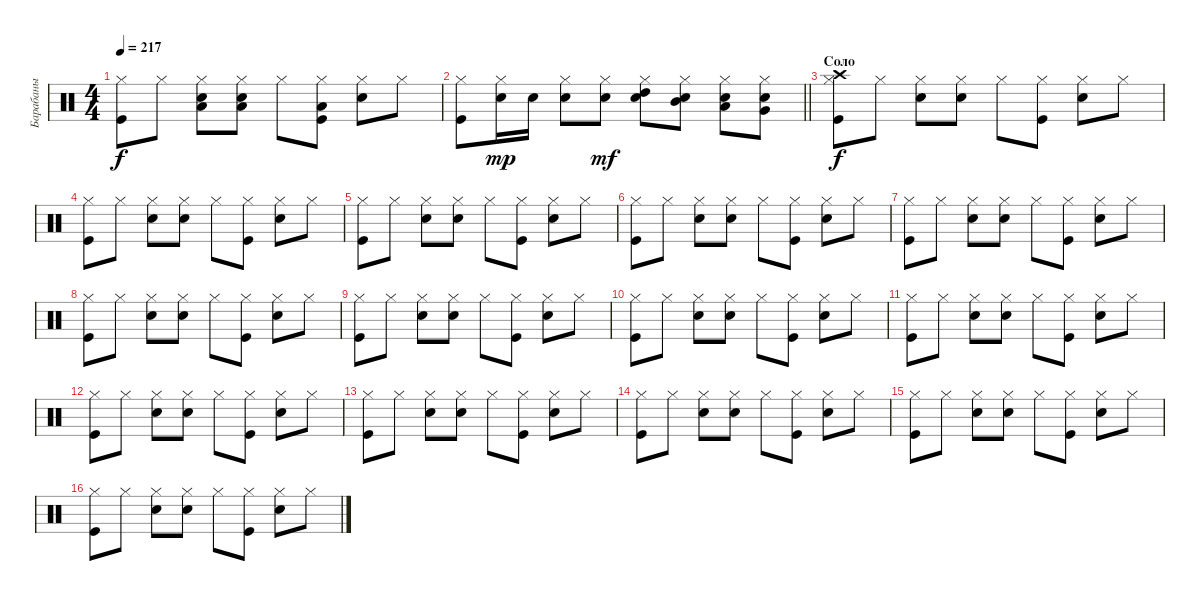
\track ("Барабаны" "Барабаны") {instrument percussion}
\staff {score}
\articulation defaults
\ts (4 4)
\tempo 217
\clef neutral
\ks c
("Kick (hit)" "Hi-Hat (closed)").8{dy f} "Hi-Hat (closed)".8 ("Snare (hit) 2" "Hi-Hat (closed)" "Low Floor Tom (hit)").8 ("Snare (hit) 2" "Hi-Hat (closed)" "Low Floor Tom (hit)").8 "Hi-Hat (closed)".8 ("Kick (hit)" "Hi-Hat (closed)" "Low Floor Tom (hit)").8 ("Snare (hit) 2" "Hi-Hat (closed)").8 "Hi-Hat (closed)".8 |
\barLineRight lightlight
("Kick (hit)" "Hi-Hat (closed)").8 ("Snare (hit) 2" "Hi-Hat (closed)").16{dy mp} "Snare (hit) 2".16 ("Snare (hit) 2" "Hi-Hat (closed)").8 ("Snare (hit) 2" "Hi-Hat (closed)").8{dy mf} ("Snare (hit) 2" "Hi-Hat (closed)" "High Tom (hit)").8 ("Snare (hit) 2" "Hi-Hat (closed)" "Mid Tom (hit)").8 ("Snare (hit) 2" "Hi-Hat (closed)" "Low Tom (hit)").8 ("Snare (hit) 2" "Hi-Hat (closed)" "Very Low Tom (hit)").8 |
\section ("" "Соло")
("Kick (hit)" "Hi-Hat (closed)" "Crash high (hit)").8{dy f} "Hi-Hat (closed)".8 ("Snare (hit) 2" "Hi-Hat (closed)").8 ("Snare (hit) 2" "Hi-Hat (closed)").8 "Hi-Hat (closed)".8 ("Kick (hit)" "Hi-Hat (closed)").8 ("Snare (hit) 2" "Hi-Hat (closed)").8 "Hi-Hat (closed)".8 |
("Kick (hit)" "Hi-Hat (closed)").8 "Hi-Hat (closed)".8 ("Snare (hit) 2" "Hi-Hat (closed)").8 ("Snare (hit) 2" "Hi-Hat (closed)").8 "Hi-Hat (closed)".8 ("Kick (hit)" "Hi-Hat (closed)").8 ("Snare (hit) 2" "Hi-Hat (closed)").8 "Hi-Hat (closed)".8 |
("Kick (hit)" "Hi-Hat (closed)").8 "Hi-Hat (closed)".8 ("Snare (hit) 2" "Hi-Hat (closed)").8 ("Snare (hit) 2" "Hi-Hat (closed)").8 "Hi-Hat (closed)".8 ("Kick (hit)" "Hi-Hat (closed)").8 ("Snare (hit) 2" "Hi-Hat (closed)").8 "Hi-Hat (closed)".8 |
("Kick (hit)" "Hi-Hat (closed)").8 "Hi-Hat (closed)".8 ("Snare (hit) 2" "Hi-Hat (closed)").8 ("Snare (hit) 2" "Hi-Hat (closed)").8 "Hi-Hat (closed)".8 ("Kick (hit)" "Hi-Hat (closed)").8 ("Snare (hit) 2" "Hi-Hat (closed)").8 "Hi-Hat (closed)".8 |
("Kick (hit)" "Hi-Hat (closed)").8 "Hi-Hat (closed)".8 ("Snare (hit) 2" "Hi-Hat (closed)").8 ("Snare (hit) 2" "Hi-Hat (closed)").8 "Hi-Hat (closed)".8 ("Kick (hit)" "Hi-Hat (closed)").8 ("Snare (hit) 2" "Hi-Hat (closed)").8 "Hi-Hat (closed)".8 |
("Kick (hit)" "Hi-Hat (closed)").8 "Hi-Hat (closed)".8 ("Snare (hit) 2" "Hi-Hat (closed)").8 ("Snare (hit) 2" "Hi-Hat (closed)").8 "Hi-Hat (closed)".8 ("Kick (hit)" "Hi-Hat (closed)").8 ("Snare (hit) 2" "Hi-Hat (closed)").8 "Hi-Hat (closed)".8 |
("Kick (hit)" "Hi-Hat (closed)").8 "Hi-Hat (closed)".8 ("Snare (hit) 2" "Hi-Hat (closed)").8 ("Snare (hit) 2" "Hi-Hat (closed)").8 "Hi-Hat (closed)".8 ("Kick (hit)" "Hi-Hat (closed)").8 ("Snare (hit) 2" "Hi-Hat (closed)").8 "Hi-Hat (closed)".8 |
("Kick (hit)" "Hi-Hat (closed)").8 "Hi-Hat (closed)".8 ("Snare (hit) 2" "Hi-Hat (closed)").8 ("Snare (hit) 2" "Hi-Hat (closed)").8 "Hi-Hat (closed)".8 ("Kick (hit)" "Hi-Hat (closed)").8 ("Snare (hit) 2" "Hi-Hat (closed)").8 "Hi-Hat (closed)".8 |
("Kick (hit)" "Hi-Hat (closed)").8 "Hi-Hat (closed)".8 ("Snare (hit) 2" "Hi-Hat (closed)").8 ("Snare (hit) 2" "Hi-Hat (closed)").8 "Hi-Hat (closed)".8 ("Kick (hit)" "Hi-Hat (closed)").8 ("Snare (hit) 2" "Hi-Hat (closed)").8 "Hi-Hat (closed)".8 |
("Kick (hit)" "Hi-Hat (closed)").8 "Hi-Hat (closed)".8 ("Snare (hit) 2" "Hi-Hat (closed)").8 ("Snare (hit) 2" "Hi-Hat (closed)").8 "Hi-Hat (closed)".8 ("Kick (hit)" "Hi-Hat (closed)").8 ("Snare (hit) 2" "Hi-Hat (closed)").8 "Hi-Hat (closed)".8 |
("Kick (hit)" "Hi-Hat (closed)").8 "Hi-Hat (closed)".8 ("Snare (hit) 2" "Hi-Hat (closed)").8 ("Snare (hit) 2" "Hi-Hat (closed)").8 "Hi-Hat (closed)".8 ("Kick (hit)" "Hi-Hat (closed)").8 ("Snare (hit) 2" "Hi-Hat (closed)").8 "Hi-Hat (closed)".8 |
("Kick (hit)" "Hi-Hat (closed)").8 "Hi-Hat (closed)".8 ("Snare (hit) 2" "Hi-Hat (closed)").8 ("Snare (hit) 2" "Hi-Hat (closed)").8 "Hi-Hat (closed)".8 ("Kick (hit)" "Hi-Hat (closed)").8 ("Snare (hit) 2" "Hi-Hat (closed)").8 "Hi-Hat (closed)".8 |
("Kick (hit)" "Hi-Hat (closed)").8 "Hi-Hat (closed)".8 ("Snare (hit) 2" "Hi-Hat (closed)").8 ("Snare (hit) 2" "Hi-Hat (closed)").8 "Hi-Hat (closed)".8 ("Kick (hit)" "Hi-Hat (closed)").8 ("Snare (hit) 2" "Hi-Hat (closed)").8 "Hi-Hat (closed)".8 |
("Kick (hit)" "Hi-Hat (closed)").8 "Hi-Hat (closed)".8 ("Snare (hit) 2" "Hi-Hat (closed)").8 ("Snare (hit) 2" "Hi-Hat (closed)").8 "Hi-Hat (closed)".8 ("Kick (hit)" "Hi-Hat (closed)").8 ("Snare (hit) 2" "Hi-Hat (closed)").8 "Hi-Hat (closed)".8
